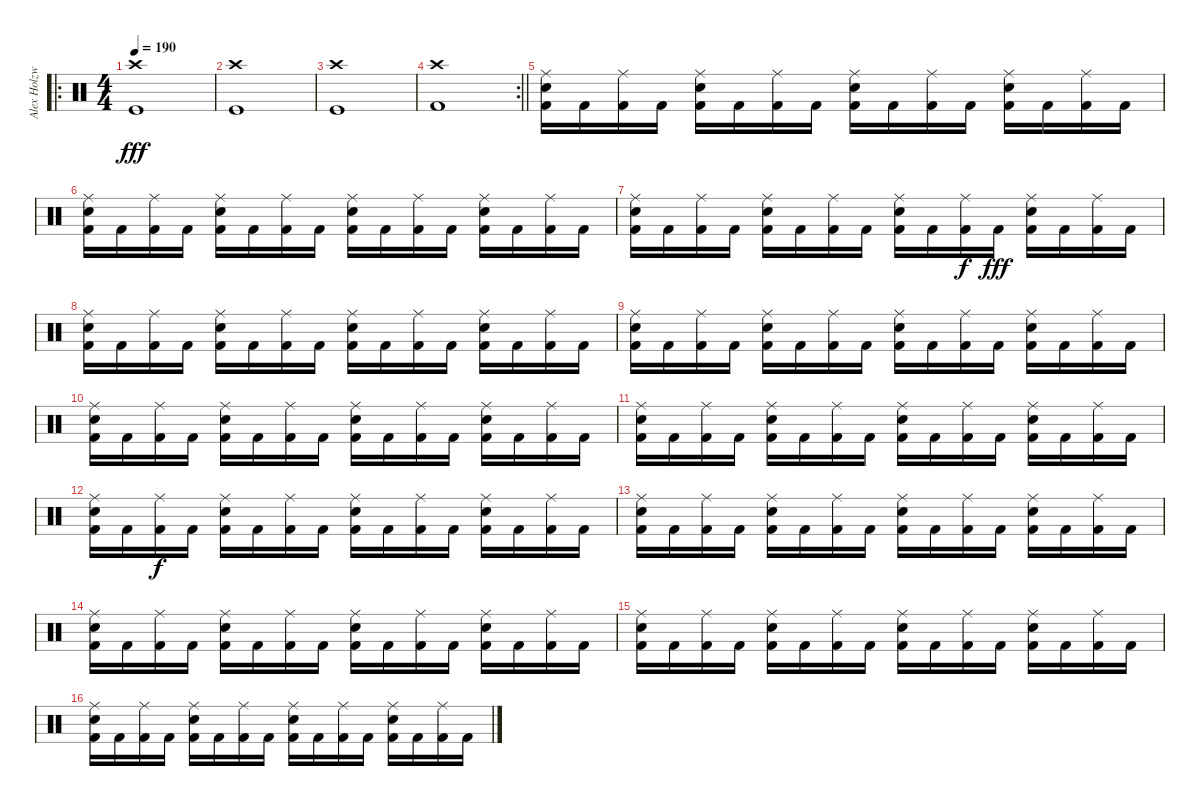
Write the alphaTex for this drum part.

\track ("Alex Holzwarth" "Alex Holzw") {instrument percussion}
\staff {score}
\articulation defaults
\ro
\ts (4 4)
\tempo 190
\clef neutral
\ks c
("Kick (hit)" "Crash high (hit)").1{dy fff} |
("Kick (hit)" "Crash high (hit)").1 |
("Kick (hit)" "Crash high (hit)").1 |
\rc 2
\barLineRight lightlight
("Kick (hit) 2" "Crash high (hit)").1 |
\section ("" "")
("Kick (hit) 2" "Electric Snare (hit)" "Ride (middle)").16 "Kick (hit) 2".16 ("Kick (hit) 2" "Ride (middle)").16 "Kick (hit) 2".16 ("Kick (hit) 2" "Electric Snare (hit)" "Ride (middle)").16 "Kick (hit) 2".16 ("Kick (hit) 2" "Ride (middle)").16 "Kick (hit) 2".16 ("Kick (hit) 2" "Electric Snare (hit)" "Ride (middle)").16 "Kick (hit) 2".16 ("Kick (hit) 2" "Ride (middle)").16 "Kick (hit) 2".16 ("Kick (hit) 2" "Electric Snare (hit)" "Ride (middle)").16 "Kick (hit) 2".16 ("Kick (hit) 2" "Ride (middle)").16 "Kick (hit) 2".16 |
("Kick (hit) 2" "Electric Snare (hit)" "Ride (middle)").16 "Kick (hit) 2".16 ("Kick (hit) 2" "Ride (middle)").16 "Kick (hit) 2".16 ("Kick (hit) 2" "Electric Snare (hit)" "Ride (middle)").16 "Kick (hit) 2".16 ("Kick (hit) 2" "Ride (middle)").16 "Kick (hit) 2".16 ("Kick (hit) 2" "Electric Snare (hit)" "Ride (middle)").16 "Kick (hit) 2".16 ("Kick (hit) 2" "Ride (middle)").16 "Kick (hit) 2".16 ("Kick (hit) 2" "Electric Snare (hit)" "Ride (middle)").16 "Kick (hit) 2".16 ("Kick (hit) 2" "Ride (middle)").16 "Kick (hit) 2".16 |
("Kick (hit) 2" "Electric Snare (hit)" "Ride (middle)").16 "Kick (hit) 2".16 ("Kick (hit) 2" "Ride (middle)").16 "Kick (hit) 2".16 ("Kick (hit) 2" "Electric Snare (hit)" "Ride (middle)").16 "Kick (hit) 2".16 ("Kick (hit) 2" "Ride (middle)").16 "Kick (hit) 2".16 ("Kick (hit) 2" "Electric Snare (hit)" "Ride (middle)").16 "Kick (hit) 2".16 ("Kick (hit) 2" "Ride (middle)").16{dy f} "Kick (hit) 2".16{dy fff} ("Kick (hit) 2" "Electric Snare (hit)" "Ride (middle)").16 "Kick (hit) 2".16 ("Kick (hit) 2" "Ride (middle)").16 "Kick (hit) 2".16 |
("Kick (hit) 2" "Electric Snare (hit)" "Ride (middle)").16 "Kick (hit) 2".16 ("Kick (hit) 2" "Ride (middle)").16 "Kick (hit) 2".16 ("Kick (hit) 2" "Electric Snare (hit)" "Ride (middle)").16 "Kick (hit) 2".16 ("Kick (hit) 2" "Ride (middle)").16 "Kick (hit) 2".16 ("Kick (hit) 2" "Electric Snare (hit)" "Ride (middle)").16 "Kick (hit) 2".16 ("Kick (hit) 2" "Ride (middle)").16 "Kick (hit) 2".16 ("Kick (hit) 2" "Electric Snare (hit)" "Ride (middle)").16 "Kick (hit) 2".16 ("Kick (hit) 2" "Ride (middle)").16 "Kick (hit) 2".16 |
("Kick (hit) 2" "Electric Snare (hit)" "Ride (middle)").16 "Kick (hit) 2".16 ("Kick (hit) 2" "Ride (middle)").16 "Kick (hit) 2".16 ("Kick (hit) 2" "Electric Snare (hit)" "Ride (middle)").16 "Kick (hit) 2".16 ("Kick (hit) 2" "Ride (middle)").16 "Kick (hit) 2".16 ("Kick (hit) 2" "Electric Snare (hit)" "Ride (middle)").16 "Kick (hit) 2".16 ("Kick (hit) 2" "Ride (middle)").16 "Kick (hit) 2".16 ("Kick (hit) 2" "Electric Snare (hit)" "Ride (middle)").16 "Kick (hit) 2".16 ("Kick (hit) 2" "Ride (middle)").16 "Kick (hit) 2".16 |
("Kick (hit) 2" "Electric Snare (hit)" "Ride (middle)").16 "Kick (hit) 2".16 ("Kick (hit) 2" "Ride (middle)").16 "Kick (hit) 2".16 ("Kick (hit) 2" "Electric Snare (hit)" "Ride (middle)").16 "Kick (hit) 2".16 ("Kick (hit) 2" "Ride (middle)").16 "Kick (hit) 2".16 ("Kick (hit) 2" "Electric Snare (hit)" "Ride (middle)").16 "Kick (hit) 2".16 ("Kick (hit) 2" "Ride (middle)").16 "Kick (hit) 2".16 ("Kick (hit) 2" "Electric Snare (hit)" "Ride (middle)").16 "Kick (hit) 2".16 ("Kick (hit) 2" "Ride (middle)").16 "Kick (hit) 2".16 |
("Kick (hit) 2" "Electric Snare (hit)" "Ride (middle)").16 "Kick (hit) 2".16 ("Kick (hit) 2" "Ride (middle)").16 "Kick (hit) 2".16 ("Kick (hit) 2" "Electric Snare (hit)" "Ride (middle)").16 "Kick (hit) 2".16 ("Kick (hit) 2" "Ride (middle)").16 "Kick (hit) 2".16 ("Kick (hit) 2" "Electric Snare (hit)" "Ride (middle)").16 "Kick (hit) 2".16 ("Kick (hit) 2" "Ride (middle)").16 "Kick (hit) 2".16 ("Kick (hit) 2" "Electric Snare (hit)" "Ride (middle)").16 "Kick (hit) 2".16 ("Kick (hit) 2" "Ride (middle)").16 "Kick (hit) 2".16 |
("Kick (hit) 2" "Electric Snare (hit)" "Ride (middle)").16 "Kick (hit) 2".16 ("Kick (hit) 2" "Ride (middle)").16{dy f} "Kick (hit) 2".16 ("Kick (hit) 2" "Electric Snare (hit)" "Ride (middle)").16 "Kick (hit) 2".16 ("Kick (hit) 2" "Ride (middle)").16 "Kick (hit) 2".16 ("Kick (hit) 2" "Electric Snare (hit)" "Ride (middle)").16 "Kick (hit) 2".16 ("Kick (hit) 2" "Ride (middle)").16 "Kick (hit) 2".16 ("Kick (hit) 2" "Electric Snare (hit)" "Ride (middle)").16 "Kick (hit) 2".16 ("Kick (hit) 2" "Ride (middle)").16 "Kick (hit) 2".16 |
("Kick (hit) 2" "Electric Snare (hit)" "Ride (middle)").16 "Kick (hit) 2".16 ("Kick (hit) 2" "Ride (middle)").16 "Kick (hit) 2".16 ("Kick (hit) 2" "Electric Snare (hit)" "Ride (middle)").16 "Kick (hit) 2".16 ("Kick (hit) 2" "Ride (middle)").16 "Kick (hit) 2".16 ("Kick (hit) 2" "Electric Snare (hit)" "Ride (middle)").16 "Kick (hit) 2".16 ("Kick (hit) 2" "Ride (middle)").16 "Kick (hit) 2".16 ("Kick (hit) 2" "Electric Snare (hit)" "Ride (middle)").16 "Kick (hit) 2".16 ("Kick (hit) 2" "Ride (middle)").16 "Kick (hit) 2".16 |
("Kick (hit) 2" "Electric Snare (hit)" "Ride (middle)").16 "Kick (hit) 2".16 ("Kick (hit) 2" "Ride (middle)").16 "Kick (hit) 2".16 ("Kick (hit) 2" "Electric Snare (hit)" "Ride (middle)").16 "Kick (hit) 2".16 ("Kick (hit) 2" "Ride (middle)").16 "Kick (hit) 2".16 ("Kick (hit) 2" "Electric Snare (hit)" "Ride (middle)").16 "Kick (hit) 2".16 ("Kick (hit) 2" "Ride (middle)").16 "Kick (hit) 2".16 ("Kick (hit) 2" "Electric Snare (hit)" "Ride (middle)").16 "Kick (hit) 2".16 ("Kick (hit) 2" "Ride (middle)").16 "Kick (hit) 2".16 |
("Kick (hit) 2" "Electric Snare (hit)" "Ride (middle)").16 "Kick (hit) 2".16 ("Kick (hit) 2" "Ride (middle)").16 "Kick (hit) 2".16 ("Kick (hit) 2" "Electric Snare (hit)" "Ride (middle)").16 "Kick (hit) 2".16 ("Kick (hit) 2" "Ride (middle)").16 "Kick (hit) 2".16 ("Kick (hit) 2" "Electric Snare (hit)" "Ride (middle)").16 "Kick (hit) 2".16 ("Kick (hit) 2" "Ride (middle)").16 "Kick (hit) 2".16 ("Kick (hit) 2" "Electric Snare (hit)" "Ride (middle)").16 "Kick (hit) 2".16 ("Kick (hit) 2" "Ride (middle)").16 "Kick (hit) 2".16 |
("Kick (hit) 2" "Electric Snare (hit)" "Ride (middle)").16 "Kick (hit) 2".16 ("Kick (hit) 2" "Ride (middle)").16 "Kick (hit) 2".16 ("Kick (hit) 2" "Electric Snare (hit)" "Ride (middle)").16 "Kick (hit) 2".16 ("Kick (hit) 2" "Ride (middle)").16 "Kick (hit) 2".16 ("Kick (hit) 2" "Electric Snare (hit)" "Ride (middle)").16 "Kick (hit) 2".16 ("Kick (hit) 2" "Ride (middle)").16 "Kick (hit) 2".16 ("Kick (hit) 2" "Electric Snare (hit)" "Ride (middle)").16 "Kick (hit) 2".16 ("Kick (hit) 2" "Ride (middle)").16 "Kick (hit) 2".16
